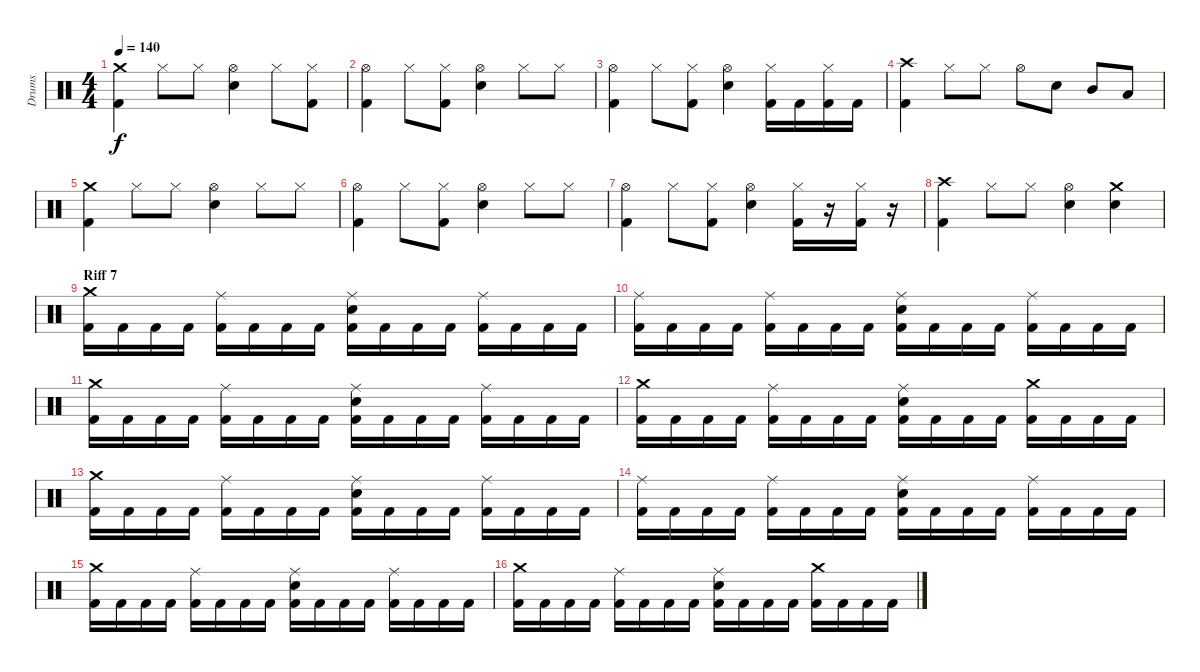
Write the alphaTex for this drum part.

\track ("Drums" "Drums") {instrument percussion}
\staff {score}
\articulation defaults
\ts (4 4)
\tempo 140
\clef neutral
\ks c
("Crash medium (hit)" "Kick (hit) 2").4{dy f} "Hi-Hat (closed)".8 "Hi-Hat (closed)".8 ("Hi-Hat (open)" "Electric Snare (hit)").4 "Hi-Hat (closed)".8 ("Hi-Hat (closed)" "Kick (hit) 2").8 |
("Hi-Hat (open)" "Kick (hit) 2").4 "Hi-Hat (closed)".8 ("Hi-Hat (closed)" "Kick (hit) 2").8 ("Hi-Hat (open)" "Electric Snare (hit)").4 "Hi-Hat (closed)".8 "Hi-Hat (closed)".8 |
("Hi-Hat (open)" "Kick (hit) 2").4 "Hi-Hat (closed)".8 ("Hi-Hat (closed)" "Kick (hit) 2").8 ("Hi-Hat (open)" "Electric Snare (hit)").4 ("Hi-Hat (closed)" "Kick (hit) 2").16 "Kick (hit) 2".16 ("Hi-Hat (closed)" "Kick (hit) 2").16 "Kick (hit) 2".16 |
("Crash high (hit)" "Kick (hit) 2").4 "Hi-Hat (closed)".8 "Hi-Hat (closed)".8 "Hi-Hat (open)".8 "Electric Snare (hit)".8 "Mid Tom (hit)".8 "Low Tom (hit)".8 |
("Crash medium (hit)" "Kick (hit) 2").4 "Hi-Hat (closed)".8 "Hi-Hat (closed)".8 ("Hi-Hat (open)" "Electric Snare (hit)").4 "Hi-Hat (closed)".8 "Hi-Hat (closed)".8 |
("Hi-Hat (open)" "Kick (hit) 2").4 "Hi-Hat (closed)".8 ("Hi-Hat (closed)" "Kick (hit) 2").8 ("Hi-Hat (open)" "Electric Snare (hit)").4 "Hi-Hat (closed)".8 "Hi-Hat (closed)".8 |
("Hi-Hat (open)" "Kick (hit) 2").4 "Hi-Hat (closed)".8 ("Hi-Hat (closed)" "Kick (hit) 2").8 ("Hi-Hat (open)" "Electric Snare (hit)").4 ("Hi-Hat (closed)" "Kick (hit) 2").16 r.16 ("Hi-Hat (closed)" "Kick (hit) 2").16 r.16 |
("Crash high (hit)" "Kick (hit) 2").4 "Hi-Hat (closed)".8 "Hi-Hat (closed)".8 ("Hi-Hat (open)" "Electric Snare (hit)").4 ("Crash medium (hit)" "Electric Snare (hit)").4 |
\section ("" "Riff 7")
("Crash medium (hit)" "Kick (hit) 2").16 "Kick (hit) 2".16 "Kick (hit) 2".16 "Kick (hit) 2".16 ("Ride (middle)" "Kick (hit) 2").16 "Kick (hit) 2".16 "Kick (hit) 2".16 "Kick (hit) 2".16 ("Ride (middle)" "Electric Snare (hit)" "Kick (hit) 2").16 "Kick (hit) 2".16 "Kick (hit) 2".16 "Kick (hit) 2".16 ("Ride (middle)" "Kick (hit) 2").16 "Kick (hit) 2".16 "Kick (hit) 2".16 "Kick (hit) 2".16 |
("Ride (middle)" "Kick (hit) 2").16 "Kick (hit) 2".16 "Kick (hit) 2".16 "Kick (hit) 2".16 ("Ride (middle)" "Kick (hit) 2").16 "Kick (hit) 2".16 "Kick (hit) 2".16 "Kick (hit) 2".16 ("Ride (middle)" "Electric Snare (hit)" "Kick (hit) 2").16 "Kick (hit) 2".16 "Kick (hit) 2".16 "Kick (hit) 2".16 ("Ride (middle)" "Kick (hit) 2").16 "Kick (hit) 2".16 "Kick (hit) 2".16 "Kick (hit) 2".16 |
("Crash medium (hit)" "Kick (hit) 2").16 "Kick (hit) 2".16 "Kick (hit) 2".16 "Kick (hit) 2".16 ("Ride (middle)" "Kick (hit) 2").16 "Kick (hit) 2".16 "Kick (hit) 2".16 "Kick (hit) 2".16 ("Ride (middle)" "Electric Snare (hit)" "Kick (hit) 2").16 "Kick (hit) 2".16 "Kick (hit) 2".16 "Kick (hit) 2".16 ("Ride (middle)" "Kick (hit) 2").16 "Kick (hit) 2".16 "Kick (hit) 2".16 "Kick (hit) 2".16 |
("Crash medium (hit)" "Kick (hit) 2").16 "Kick (hit) 2".16 "Kick (hit) 2".16 "Kick (hit) 2".16 ("Ride (middle)" "Kick (hit) 2").16 "Kick (hit) 2".16 "Kick (hit) 2".16 "Kick (hit) 2".16 ("Ride (middle)" "Electric Snare (hit)" "Kick (hit) 2").16 "Kick (hit) 2".16 "Kick (hit) 2".16 "Kick (hit) 2".16 ("Crash medium (hit)" "Kick (hit) 2").16 "Kick (hit) 2".16 "Kick (hit) 2".16 "Kick (hit) 2".16 |
("Crash medium (hit)" "Kick (hit) 2").16 "Kick (hit) 2".16 "Kick (hit) 2".16 "Kick (hit) 2".16 ("Ride (middle)" "Kick (hit) 2").16 "Kick (hit) 2".16 "Kick (hit) 2".16 "Kick (hit) 2".16 ("Ride (middle)" "Electric Snare (hit)" "Kick (hit) 2").16 "Kick (hit) 2".16 "Kick (hit) 2".16 "Kick (hit) 2".16 ("Ride (middle)" "Kick (hit) 2").16 "Kick (hit) 2".16 "Kick (hit) 2".16 "Kick (hit) 2".16 |
("Ride (middle)" "Kick (hit) 2").16 "Kick (hit) 2".16 "Kick (hit) 2".16 "Kick (hit) 2".16 ("Ride (middle)" "Kick (hit) 2").16 "Kick (hit) 2".16 "Kick (hit) 2".16 "Kick (hit) 2".16 ("Ride (middle)" "Electric Snare (hit)" "Kick (hit) 2").16 "Kick (hit) 2".16 "Kick (hit) 2".16 "Kick (hit) 2".16 ("Ride (middle)" "Kick (hit) 2").16 "Kick (hit) 2".16 "Kick (hit) 2".16 "Kick (hit) 2".16 |
("Crash medium (hit)" "Kick (hit) 2").16 "Kick (hit) 2".16 "Kick (hit) 2".16 "Kick (hit) 2".16 ("Ride (middle)" "Kick (hit) 2").16 "Kick (hit) 2".16 "Kick (hit) 2".16 "Kick (hit) 2".16 ("Ride (middle)" "Electric Snare (hit)" "Kick (hit) 2").16 "Kick (hit) 2".16 "Kick (hit) 2".16 "Kick (hit) 2".16 ("Ride (middle)" "Kick (hit) 2").16 "Kick (hit) 2".16 "Kick (hit) 2".16 "Kick (hit) 2".16 |
("Crash medium (hit)" "Kick (hit) 2").16 "Kick (hit) 2".16 "Kick (hit) 2".16 "Kick (hit) 2".16 ("Ride (middle)" "Kick (hit) 2").16 "Kick (hit) 2".16 "Kick (hit) 2".16 "Kick (hit) 2".16 ("Ride (middle)" "Electric Snare (hit)" "Kick (hit) 2").16 "Kick (hit) 2".16 "Kick (hit) 2".16 "Kick (hit) 2".16 ("Crash medium (hit)" "Kick (hit) 2").16 "Kick (hit) 2".16 "Kick (hit) 2".16 "Kick (hit) 2".16
